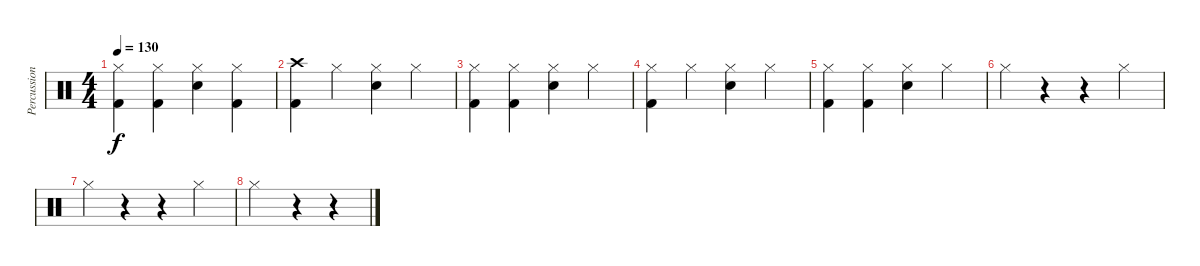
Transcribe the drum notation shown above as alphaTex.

\track ("Percussion" "Percussion") {instrument percussion}
\staff {score}
\articulation defaults
\ts (4 4)
\tempo 130
\clef neutral
\ks c
("Hi-Hat (closed)" "Kick (hit) 2").4{dy f} ("Hi-Hat (closed)" "Kick (hit) 2").4 ("Hi-Hat (closed)" "Snare (hit) 2").4 ("Kick (hit) 2" "Hi-Hat (closed)").4 |
("Crash high (hit)" "Kick (hit) 2").4 "Hi-Hat (closed)".4 ("Snare (hit) 2" "Hi-Hat (closed)").4 "Hi-Hat (closed)".4 |
("Hi-Hat (closed)" "Kick (hit) 2").4 ("Hi-Hat (closed)" "Kick (hit) 2").4 ("Hi-Hat (closed)" "Snare (hit) 2").4 "Hi-Hat (closed)".4 |
("Hi-Hat (closed)" "Kick (hit) 2").4 "Hi-Hat (closed)".4 ("Snare (hit) 2" "Hi-Hat (closed)").4 "Hi-Hat (closed)".4 |
("Hi-Hat (closed)" "Kick (hit) 2").4 ("Hi-Hat (closed)" "Kick (hit) 2").4 ("Hi-Hat (closed)" "Snare (hit) 2").4 "Hi-Hat (closed)".4 |
"Hi-Hat (closed)".4 r.4 r.4 "Hi-Hat (closed)".4 |
"Hi-Hat (closed)".4 r.4 r.4 "Hi-Hat (closed)".4 |
"Hi-Hat (closed)".2 r.4 r.4
